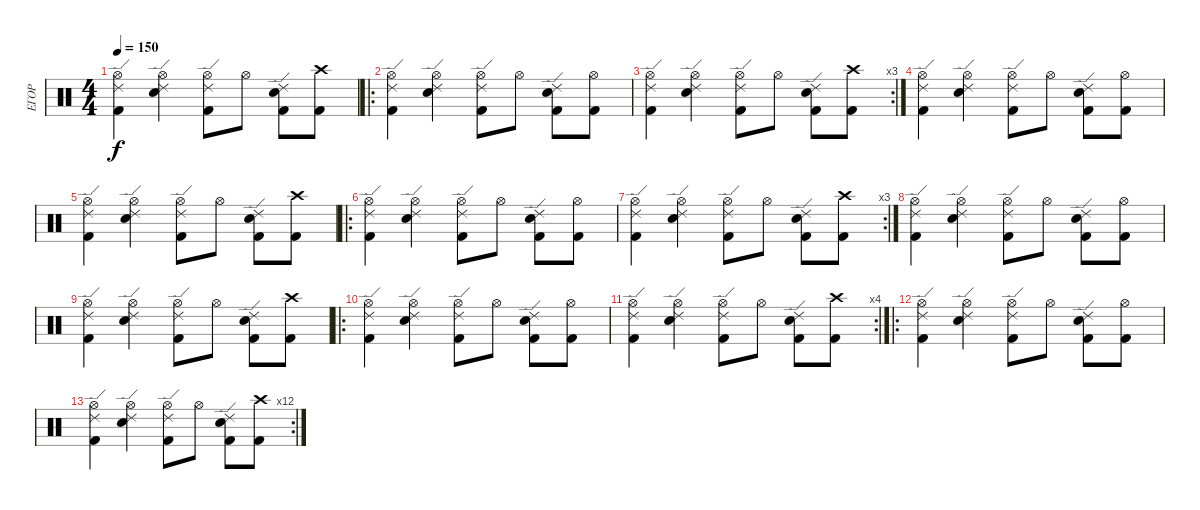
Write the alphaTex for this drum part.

\track ("ЕГОР" "ЕГОР") {instrument percussion}
\staff {score}
\articulation defaults
\ts (4 4)
\tempo 150
\clef neutral
\ks c
("Hi-Hat (open)" "Ride (edge) 2" "Kick (hit) 2").4{dy f} ("Hi-Hat (open)" "Snare (hit) 2" "Ride (edge) 2").4 ("Hi-Hat (open)" "Ride (edge) 2" "Kick (hit) 2").8 "Hi-Hat (open)".8 ("Snare (hit) 2" "Ride (edge) 2" "Kick (hit) 2").8 ("Crash high (hit)" "Kick (hit) 2").8 |
\ro
("Hi-Hat (open)" "Ride (edge) 2" "Kick (hit) 2").4 ("Hi-Hat (open)" "Snare (hit) 2" "Ride (edge) 2").4 ("Hi-Hat (open)" "Ride (edge) 2" "Kick (hit) 2").8 "Hi-Hat (open)".8 ("Snare (hit) 2" "Ride (edge) 2" "Kick (hit) 2").8 ("Hi-Hat (open)" "Kick (hit) 2").8 |
\rc 3
("Hi-Hat (open)" "Ride (edge) 2" "Kick (hit) 2").4 ("Hi-Hat (open)" "Snare (hit) 2" "Ride (edge) 2").4 ("Hi-Hat (open)" "Ride (edge) 2" "Kick (hit) 2").8 "Hi-Hat (open)".8 ("Snare (hit) 2" "Ride (edge) 2" "Kick (hit) 2").8 ("Crash high (hit)" "Kick (hit) 2").8 |
("Hi-Hat (open)" "Ride (edge) 2" "Kick (hit) 2").4 ("Hi-Hat (open)" "Snare (hit) 2" "Ride (edge) 2").4 ("Hi-Hat (open)" "Ride (edge) 2" "Kick (hit) 2").8 "Hi-Hat (open)".8 ("Snare (hit) 2" "Ride (edge) 2" "Kick (hit) 2").8 ("Hi-Hat (open)" "Kick (hit) 2").8 |
("Hi-Hat (open)" "Ride (edge) 2" "Kick (hit) 2").4 ("Hi-Hat (open)" "Snare (hit) 2" "Ride (edge) 2").4 ("Hi-Hat (open)" "Ride (edge) 2" "Kick (hit) 2").8 "Hi-Hat (open)".8 ("Snare (hit) 2" "Ride (edge) 2" "Kick (hit) 2").8 ("Crash high (hit)" "Kick (hit) 2").8 |
\ro
("Hi-Hat (open)" "Ride (edge) 2" "Kick (hit) 2").4 ("Hi-Hat (open)" "Snare (hit) 2" "Ride (edge) 2").4 ("Hi-Hat (open)" "Ride (edge) 2" "Kick (hit) 2").8 "Hi-Hat (open)".8 ("Snare (hit) 2" "Ride (edge) 2" "Kick (hit) 2").8 ("Hi-Hat (open)" "Kick (hit) 2").8 |
\rc 3
("Hi-Hat (open)" "Ride (edge) 2" "Kick (hit) 2").4 ("Hi-Hat (open)" "Snare (hit) 2" "Ride (edge) 2").4 ("Hi-Hat (open)" "Ride (edge) 2" "Kick (hit) 2").8 "Hi-Hat (open)".8 ("Snare (hit) 2" "Ride (edge) 2" "Kick (hit) 2").8 ("Crash high (hit)" "Kick (hit) 2").8 |
("Hi-Hat (open)" "Ride (edge) 2" "Kick (hit) 2").4 ("Hi-Hat (open)" "Snare (hit) 2" "Ride (edge) 2").4 ("Hi-Hat (open)" "Ride (edge) 2" "Kick (hit) 2").8 "Hi-Hat (open)".8 ("Snare (hit) 2" "Ride (edge) 2" "Kick (hit) 2").8 ("Hi-Hat (open)" "Kick (hit) 2").8 |
("Hi-Hat (open)" "Ride (edge) 2" "Kick (hit) 2").4 ("Hi-Hat (open)" "Snare (hit) 2" "Ride (edge) 2").4 ("Hi-Hat (open)" "Ride (edge) 2" "Kick (hit) 2").8 "Hi-Hat (open)".8 ("Snare (hit) 2" "Ride (edge) 2" "Kick (hit) 2").8 ("Crash high (hit)" "Kick (hit) 2").8 |
\ro
("Hi-Hat (open)" "Ride (edge) 2" "Kick (hit) 2").4 ("Hi-Hat (open)" "Snare (hit) 2" "Ride (edge) 2").4 ("Hi-Hat (open)" "Ride (edge) 2" "Kick (hit) 2").8 "Hi-Hat (open)".8 ("Snare (hit) 2" "Ride (edge) 2" "Kick (hit) 2").8 ("Hi-Hat (open)" "Kick (hit) 2").8 |
\rc 4
("Hi-Hat (open)" "Ride (edge) 2" "Kick (hit) 2").4 ("Hi-Hat (open)" "Snare (hit) 2" "Ride (edge) 2").4 ("Hi-Hat (open)" "Ride (edge) 2" "Kick (hit) 2").8 "Hi-Hat (open)".8 ("Snare (hit) 2" "Ride (edge) 2" "Kick (hit) 2").8 ("Crash high (hit)" "Kick (hit) 2").8 |
\ro
("Hi-Hat (open)" "Ride (edge) 2" "Kick (hit) 2").4 ("Hi-Hat (open)" "Snare (hit) 2" "Ride (edge) 2").4 ("Hi-Hat (open)" "Ride (edge) 2" "Kick (hit) 2").8 "Hi-Hat (open)".8 ("Snare (hit) 2" "Ride (edge) 2" "Kick (hit) 2").8 ("Hi-Hat (open)" "Kick (hit) 2").8 |
\rc 12
("Hi-Hat (open)" "Ride (edge) 2" "Kick (hit) 2").4 ("Hi-Hat (open)" "Snare (hit) 2" "Ride (edge) 2").4 ("Hi-Hat (open)" "Ride (edge) 2" "Kick (hit) 2").8 "Hi-Hat (open)".8 ("Snare (hit) 2" "Ride (edge) 2" "Kick (hit) 2").8 ("Crash high (hit)" "Kick (hit) 2").8
